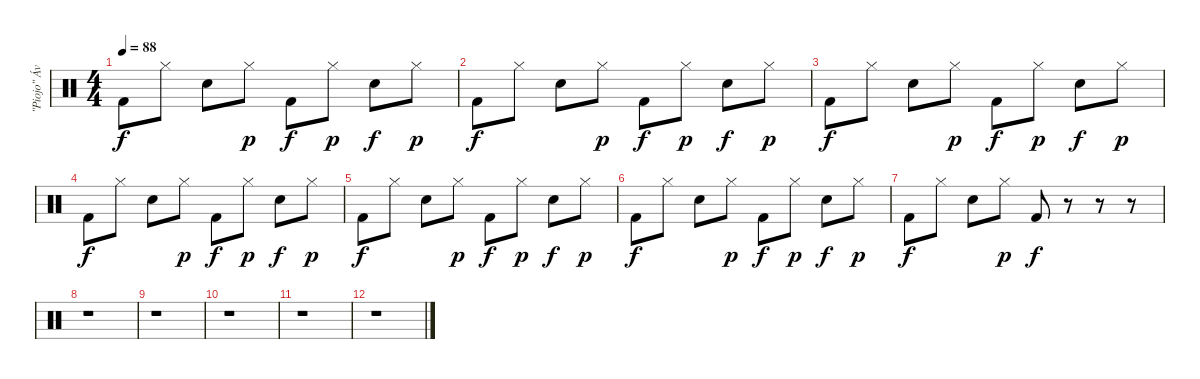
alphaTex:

\track ("\"Piojo\" Ávalos" "\"Piojo\" Áv") {instrument percussion}
\staff {score}
\articulation defaults
\ts (4 4)
\tempo 88
\clef neutral
\ks c "Kick (hit) 2".8{dy f} "Hi-Hat (closed)".8 "Snare (hit) 2".8 "Hi-Hat (closed)".8{dy p} "Kick (hit) 2".8{dy f} "Hi-Hat (closed)".8{dy p} "Snare (hit) 2".8{dy f} "Hi-Hat (closed)".8{dy p}
|
"Kick (hit) 2".8{dy f} "Hi-Hat (closed)".8 "Snare (hit) 2".8 "Hi-Hat (closed)".8{dy p} "Kick (hit) 2".8{dy f} "Hi-Hat (closed)".8{dy p} "Snare (hit) 2".8{dy f} "Hi-Hat (closed)".8{dy p} |
"Kick (hit) 2".8{dy f volume 2} "Hi-Hat (closed)".8 "Snare (hit) 2".8 "Hi-Hat (closed)".8{dy p} "Kick (hit) 2".8{dy f} "Hi-Hat (closed)".8{dy p} "Snare (hit) 2".8{dy f} "Hi-Hat (closed)".8{dy p} |
"Kick (hit) 2".8{dy f} "Hi-Hat (closed)".8 "Snare (hit) 2".8 "Hi-Hat (closed)".8{dy p} "Kick (hit) 2".8{dy f} "Hi-Hat (closed)".8{dy p} "Snare (hit) 2".8{dy f} "Hi-Hat (closed)".8{dy p} |
"Kick (hit) 2".8{dy f} "Hi-Hat (closed)".8 "Snare (hit) 2".8 "Hi-Hat (closed)".8{dy p} "Kick (hit) 2".8{dy f} "Hi-Hat (closed)".8{dy p} "Snare (hit) 2".8{dy f} "Hi-Hat (closed)".8{dy p} |
"Kick (hit) 2".8{dy f} "Hi-Hat (closed)".8 "Snare (hit) 2".8 "Hi-Hat (closed)".8{dy p} "Kick (hit) 2".8{dy f} "Hi-Hat (closed)".8{dy p} "Snare (hit) 2".8{dy f} "Hi-Hat (closed)".8{dy p} |
"Kick (hit) 2".8{dy f} "Hi-Hat (closed)".8 "Snare (hit) 2".8 "Hi-Hat (closed)".8{dy p} "Kick (hit) 2".8{dy f} r.8 r.8 r.8 |
r.1 |
r.1 |
r.1 |
r.1 |
r.1
